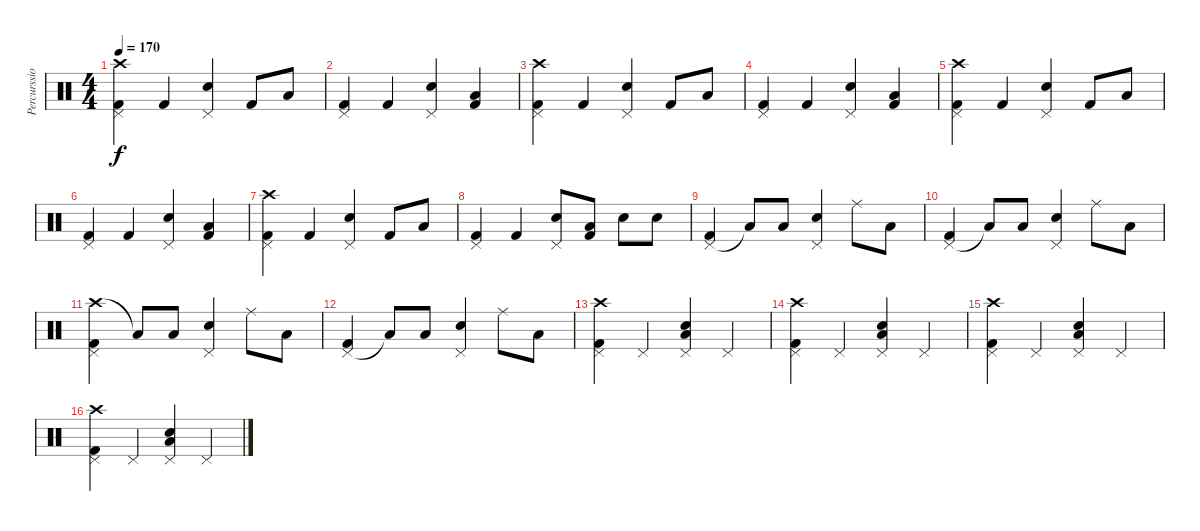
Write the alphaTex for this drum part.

\track ("Percurssion" "Percurssio") {instrument percussion}
\staff {score}
\articulation defaults
\ts (4 4)
\tempo 170
\clef neutral
\ks c
("Crash high (hit)" "Pedal Hi-Hat (hit)" "Kick (hit) 2").4{dy f} "Kick (hit) 2".4 ("Pedal Hi-Hat (hit)" "Electric Snare (hit)").4 "Kick (hit) 2".8 "Low Tom (hit)".8 |
("Pedal Hi-Hat (hit)" "Kick (hit) 2").4 "Kick (hit) 2".4 ("Pedal Hi-Hat (hit)" "Electric Snare (hit)").4 ("Low Tom (hit)" "Kick (hit) 2").4{bu 240} |
("Crash high (hit)" "Pedal Hi-Hat (hit)" "Kick (hit) 2").4 "Kick (hit) 2".4 ("Pedal Hi-Hat (hit)" "Electric Snare (hit)").4 "Kick (hit) 2".8 "Low Tom (hit)".8 |
("Pedal Hi-Hat (hit)" "Kick (hit) 2").4 "Kick (hit) 2".4 ("Pedal Hi-Hat (hit)" "Electric Snare (hit)").4 ("Low Tom (hit)" "Kick (hit) 2").4{bu 240} |
("Crash high (hit)" "Pedal Hi-Hat (hit)" "Kick (hit) 2").4 "Kick (hit) 2".4 ("Pedal Hi-Hat (hit)" "Electric Snare (hit)").4 "Kick (hit) 2".8 "Low Tom (hit)".8 |
("Pedal Hi-Hat (hit)" "Kick (hit) 2").4 "Kick (hit) 2".4 ("Pedal Hi-Hat (hit)" "Electric Snare (hit)").4 ("Low Tom (hit)" "Kick (hit) 2").4{bu 240} |
("Crash high (hit)" "Pedal Hi-Hat (hit)" "Kick (hit) 2").4 "Kick (hit) 2".4 ("Pedal Hi-Hat (hit)" "Electric Snare (hit)").4 "Kick (hit) 2".8 "Low Tom (hit)".8 |
("Pedal Hi-Hat (hit)" "Kick (hit) 2").4 "Kick (hit) 2".4 ("Pedal Hi-Hat (hit)" "Electric Snare (hit)").8 ("Low Tom (hit)" "Kick (hit) 2").8{bu 240} "Electric Snare (hit)".8 "Electric Snare (hit)".8 |
("Pedal Hi-Hat (hit)" "Kick (hit) 2").4 "Low Tom (hit)"{t}.8 "Low Tom (hit)".8 ("Pedal Hi-Hat (hit)" "Electric Snare (hit)").4 "Ride (middle)".8 "Low Tom (hit)".8 |
("Pedal Hi-Hat (hit)" "Kick (hit) 2").4 "Low Tom (hit)"{t}.8 "Low Tom (hit)".8 ("Pedal Hi-Hat (hit)" "Electric Snare (hit)").4 "Ride (middle)".8 "Low Tom (hit)".8 |
("Crash high (hit)" "Pedal Hi-Hat (hit)" "Kick (hit) 2").4 "Low Tom (hit)"{t}.8 "Low Tom (hit)".8 ("Pedal Hi-Hat (hit)" "Electric Snare (hit)").4 "Ride (middle)".8 "Low Tom (hit)".8 |
("Pedal Hi-Hat (hit)" "Kick (hit) 2").4 "Low Tom (hit)"{t}.8 "Low Tom (hit)".8 ("Pedal Hi-Hat (hit)" "Electric Snare (hit)").4 "Ride (middle)".8 "Low Tom (hit)".8 |
("Crash high (hit)" "Pedal Hi-Hat (hit)" "Kick (hit) 2").4 "Pedal Hi-Hat (hit)".4 ("Low Tom (hit)" "Pedal Hi-Hat (hit)" "Electric Snare (hit)").4 "Pedal Hi-Hat (hit)".4 |
("Crash high (hit)" "Pedal Hi-Hat (hit)" "Kick (hit) 2").4 "Pedal Hi-Hat (hit)".4 ("Low Tom (hit)" "Pedal Hi-Hat (hit)" "Electric Snare (hit)").4 "Pedal Hi-Hat (hit)".4 |
("Crash high (hit)" "Pedal Hi-Hat (hit)" "Kick (hit) 2").4 "Pedal Hi-Hat (hit)".4 ("Low Tom (hit)" "Pedal Hi-Hat (hit)" "Electric Snare (hit)").4 "Pedal Hi-Hat (hit)".4 |
("Crash high (hit)" "Pedal Hi-Hat (hit)" "Kick (hit) 2").4 "Pedal Hi-Hat (hit)".4 ("Low Tom (hit)" "Pedal Hi-Hat (hit)" "Electric Snare (hit)").4 "Pedal Hi-Hat (hit)".4
